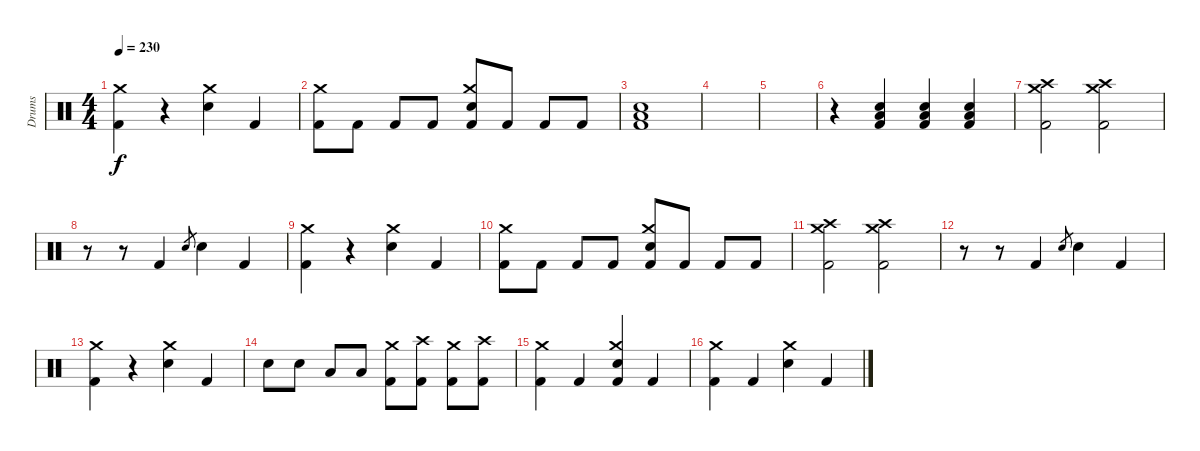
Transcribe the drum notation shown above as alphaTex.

\track ("Drums" "Drums") {instrument percussion}
\staff {score}
\articulation defaults
\ts (4 4)
\tempo 230
\clef neutral
\ks c
("Kick (hit) 2" "Crash medium (hit)").4{dy f} r.4 ("Electric Snare (hit)" "Crash medium (hit)").4 "Kick (hit) 2".4 |
("Kick (hit) 2" "Crash medium (hit)").8 "Kick (hit) 2".8 "Kick (hit) 2".8 "Kick (hit) 2".8 ("Kick (hit) 2" "Electric Snare (hit)" "Crash medium (hit)").8 "Kick (hit) 2".8 "Kick (hit) 2".8 "Kick (hit) 2".8 |
("Kick (hit) 2" "Low Tom (hit)" "Electric Snare (hit)").1 |
|
|
r.4 ("Kick (hit) 2" "Electric Snare (hit)" "Low Tom (hit)").4 ("Kick (hit) 2" "Electric Snare (hit)" "Low Tom (hit)").4 ("Kick (hit) 2" "Electric Snare (hit)" "Low Tom (hit)").4 |
("Kick (hit) 2" "Crash high (hit)" "Crash medium (hit)").2 ("Kick (hit) 2" "Crash high (hit)" "Crash medium (hit)").2 |
r.8 r.8 "Kick (hit) 2".4 "Electric Snare (hit)".8{gr} "Electric Snare (hit)".4 "Kick (hit) 2".4 |
("Kick (hit) 2" "Crash medium (hit)").4 r.4 ("Electric Snare (hit)" "Crash medium (hit)").4 "Kick (hit) 2".4 |
("Kick (hit) 2" "Crash medium (hit)").8 "Kick (hit) 2".8 "Kick (hit) 2".8 "Kick (hit) 2".8 ("Kick (hit) 2" "Electric Snare (hit)" "Crash medium (hit)").8 "Kick (hit) 2".8 "Kick (hit) 2".8 "Kick (hit) 2".8 |
("Kick (hit) 2" "Crash high (hit)" "Crash medium (hit)").2 ("Kick (hit) 2" "Crash high (hit)" "Crash medium (hit)").2 |
r.8 r.8 "Kick (hit) 2".4 "Electric Snare (hit)".8{gr} "Electric Snare (hit)".4 "Kick (hit) 2".4 |
("Kick (hit) 2" "Crash medium (hit)").4 r.4 ("Electric Snare (hit)" "Crash medium (hit)").4 "Kick (hit) 2".4 |
"Electric Snare (hit)".8 "Electric Snare (hit)".8 "Low Tom (hit)".8 "Low Tom (hit)".8 ("Kick (hit) 2" "Crash medium (hit)").8 ("Kick (hit) 2" "Crash high (hit)").8 ("Kick (hit) 2" "Crash medium (hit)").8 ("Kick (hit) 2" "Crash high (hit)").8 |
("Kick (hit) 2" "Crash medium (hit)").4 "Kick (hit) 2".4 ("Kick (hit) 2" "Electric Snare (hit)" "Crash medium (hit)").4 "Kick (hit) 2".4 |
("Kick (hit) 2" "Crash medium (hit)").4 "Kick (hit) 2".4 ("Electric Snare (hit)" "Crash medium (hit)").4 "Kick (hit) 2".4
